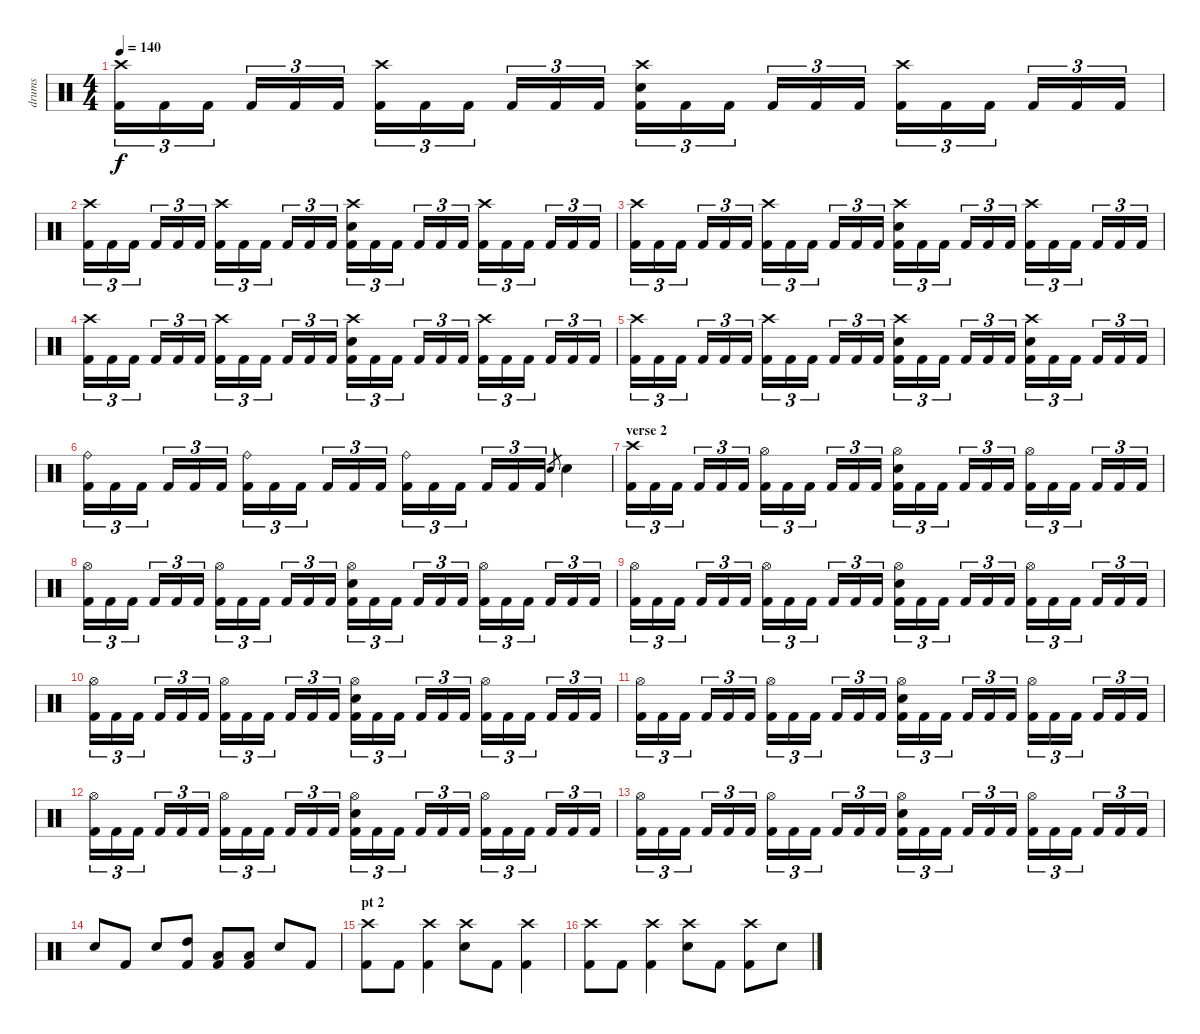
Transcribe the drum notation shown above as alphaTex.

\track ("drums" "drums") {instrument percussion}
\staff {score}
\articulation defaults
\ts (4 4)
\tempo 140
\clef neutral
\ks c
("Crash high (hit)" "Kick (hit) 2").16{tu (3 2) dy f} "Kick (hit) 2".16{tu (3 2)} "Kick (hit) 2".16{tu (3 2)} "Kick (hit) 2".16{tu (3 2)} "Kick (hit) 2".16{tu (3 2)} "Kick (hit) 2".16{tu (3 2)} ("Crash high (hit)" "Kick (hit) 2").16{tu (3 2)} "Kick (hit) 2".16{tu (3 2)} "Kick (hit) 2".16{tu (3 2)} "Kick (hit) 2".16{tu (3 2)} "Kick (hit) 2".16{tu (3 2)} "Kick (hit) 2".16{tu (3 2)} ("Crash high (hit)" "Electric Snare (hit)" "Kick (hit) 2").16{tu (3 2)} "Kick (hit) 2".16{tu (3 2)} "Kick (hit) 2".16{tu (3 2)} "Kick (hit) 2".16{tu (3 2)} "Kick (hit) 2".16{tu (3 2)} "Kick (hit) 2".16{tu (3 2)} ("Crash high (hit)" "Kick (hit) 2").16{tu (3 2)} "Kick (hit) 2".16{tu (3 2)} "Kick (hit) 2".16{tu (3 2)} "Kick (hit) 2".16{tu (3 2)} "Kick (hit) 2".16{tu (3 2)} "Kick (hit) 2".16{tu (3 2)} |
("Crash high (hit)" "Kick (hit) 2").16{tu (3 2)} "Kick (hit) 2".16{tu (3 2)} "Kick (hit) 2".16{tu (3 2)} "Kick (hit) 2".16{tu (3 2)} "Kick (hit) 2".16{tu (3 2)} "Kick (hit) 2".16{tu (3 2)} ("Crash high (hit)" "Kick (hit) 2").16{tu (3 2)} "Kick (hit) 2".16{tu (3 2)} "Kick (hit) 2".16{tu (3 2)} "Kick (hit) 2".16{tu (3 2)} "Kick (hit) 2".16{tu (3 2)} "Kick (hit) 2".16{tu (3 2)} ("Crash high (hit)" "Electric Snare (hit)" "Kick (hit) 2").16{tu (3 2)} "Kick (hit) 2".16{tu (3 2)} "Kick (hit) 2".16{tu (3 2)} "Kick (hit) 2".16{tu (3 2)} "Kick (hit) 2".16{tu (3 2)} "Kick (hit) 2".16{tu (3 2)} ("Crash high (hit)" "Kick (hit) 2").16{tu (3 2)} "Kick (hit) 2".16{tu (3 2)} "Kick (hit) 2".16{tu (3 2)} "Kick (hit) 2".16{tu (3 2)} "Kick (hit) 2".16{tu (3 2)} "Kick (hit) 2".16{tu (3 2)} |
("Crash high (hit)" "Kick (hit) 2").16{tu (3 2)} "Kick (hit) 2".16{tu (3 2)} "Kick (hit) 2".16{tu (3 2)} "Kick (hit) 2".16{tu (3 2)} "Kick (hit) 2".16{tu (3 2)} "Kick (hit) 2".16{tu (3 2)} ("Crash high (hit)" "Kick (hit) 2").16{tu (3 2)} "Kick (hit) 2".16{tu (3 2)} "Kick (hit) 2".16{tu (3 2)} "Kick (hit) 2".16{tu (3 2)} "Kick (hit) 2".16{tu (3 2)} "Kick (hit) 2".16{tu (3 2)} ("Crash high (hit)" "Electric Snare (hit)" "Kick (hit) 2").16{tu (3 2)} "Kick (hit) 2".16{tu (3 2)} "Kick (hit) 2".16{tu (3 2)} "Kick (hit) 2".16{tu (3 2)} "Kick (hit) 2".16{tu (3 2)} "Kick (hit) 2".16{tu (3 2)} ("Crash high (hit)" "Kick (hit) 2").16{tu (3 2)} "Kick (hit) 2".16{tu (3 2)} "Kick (hit) 2".16{tu (3 2)} "Kick (hit) 2".16{tu (3 2)} "Kick (hit) 2".16{tu (3 2)} "Kick (hit) 2".16{tu (3 2)} |
("Crash high (hit)" "Kick (hit) 2").16{tu (3 2)} "Kick (hit) 2".16{tu (3 2)} "Kick (hit) 2".16{tu (3 2)} "Kick (hit) 2".16{tu (3 2)} "Kick (hit) 2".16{tu (3 2)} "Kick (hit) 2".16{tu (3 2)} ("Crash high (hit)" "Kick (hit) 2").16{tu (3 2)} "Kick (hit) 2".16{tu (3 2)} "Kick (hit) 2".16{tu (3 2)} "Kick (hit) 2".16{tu (3 2)} "Kick (hit) 2".16{tu (3 2)} "Kick (hit) 2".16{tu (3 2)} ("Crash high (hit)" "Electric Snare (hit)" "Kick (hit) 2").16{tu (3 2)} "Kick (hit) 2".16{tu (3 2)} "Kick (hit) 2".16{tu (3 2)} "Kick (hit) 2".16{tu (3 2)} "Kick (hit) 2".16{tu (3 2)} "Kick (hit) 2".16{tu (3 2)} ("Crash high (hit)" "Kick (hit) 2").16{tu (3 2)} "Kick (hit) 2".16{tu (3 2)} "Kick (hit) 2".16{tu (3 2)} "Kick (hit) 2".16{tu (3 2)} "Kick (hit) 2".16{tu (3 2)} "Kick (hit) 2".16{tu (3 2)} |
("Crash high (hit)" "Kick (hit) 2").16{tu (3 2)} "Kick (hit) 2".16{tu (3 2)} "Kick (hit) 2".16{tu (3 2)} "Kick (hit) 2".16{tu (3 2)} "Kick (hit) 2".16{tu (3 2)} "Kick (hit) 2".16{tu (3 2)} ("Crash high (hit)" "Kick (hit) 2").16{tu (3 2)} "Kick (hit) 2".16{tu (3 2)} "Kick (hit) 2".16{tu (3 2)} "Kick (hit) 2".16{tu (3 2)} "Kick (hit) 2".16{tu (3 2)} "Kick (hit) 2".16{tu (3 2)} ("Crash high (hit)" "Electric Snare (hit)" "Kick (hit) 2").16{tu (3 2)} "Kick (hit) 2".16{tu (3 2)} "Kick (hit) 2".16{tu (3 2)} "Kick (hit) 2".16{tu (3 2)} "Kick (hit) 2".16{tu (3 2)} "Kick (hit) 2".16{tu (3 2)} ("Crash high (hit)" "Electric Snare (hit)" "Kick (hit) 2").16{tu (3 2)} "Kick (hit) 2".16{tu (3 2)} "Kick (hit) 2".16{tu (3 2)} "Kick (hit) 2".16{tu (3 2)} "Kick (hit) 2".16{tu (3 2)} "Kick (hit) 2".16{tu (3 2)} |
("Ride (bell)" "Kick (hit) 2").16{tu (3 2)} "Kick (hit) 2".16{tu (3 2)} "Kick (hit) 2".16{tu (3 2)} "Kick (hit) 2".16{tu (3 2)} "Kick (hit) 2".16{tu (3 2)} "Kick (hit) 2".16{tu (3 2)} ("Ride (bell)" "Kick (hit) 2").16{tu (3 2)} "Kick (hit) 2".16{tu (3 2)} "Kick (hit) 2".16{tu (3 2)} "Kick (hit) 2".16{tu (3 2)} "Kick (hit) 2".16{tu (3 2)} "Kick (hit) 2".16{tu (3 2)} ("Ride (bell)" "Kick (hit) 2").16{tu (3 2)} "Kick (hit) 2".16{tu (3 2)} "Kick (hit) 2".16{tu (3 2)} "Kick (hit) 2".16{tu (3 2)} "Kick (hit) 2".16{tu (3 2)} "Kick (hit) 2".16{tu (3 2)} "Electric Snare (hit)".8{gr} "Electric Snare (hit)".4 |
\section ("" "verse 2")
("Crash high (hit)" "Kick (hit) 2").16{tu (3 2)} "Kick (hit) 2".16{tu (3 2)} "Kick (hit) 2".16{tu (3 2)} "Kick (hit) 2".16{tu (3 2)} "Kick (hit) 2".16{tu (3 2)} "Kick (hit) 2".16{tu (3 2)} ("Hi-Hat (open)" "Kick (hit) 2").16{tu (3 2)} "Kick (hit) 2".16{tu (3 2)} "Kick (hit) 2".16{tu (3 2)} "Kick (hit) 2".16{tu (3 2)} "Kick (hit) 2".16{tu (3 2)} "Kick (hit) 2".16{tu (3 2)} ("Hi-Hat (open)" "Electric Snare (hit)" "Kick (hit) 2").16{tu (3 2)} "Kick (hit) 2".16{tu (3 2)} "Kick (hit) 2".16{tu (3 2)} "Kick (hit) 2".16{tu (3 2)} "Kick (hit) 2".16{tu (3 2)} "Kick (hit) 2".16{tu (3 2)} ("Hi-Hat (open)" "Kick (hit) 2").16{tu (3 2)} "Kick (hit) 2".16{tu (3 2)} "Kick (hit) 2".16{tu (3 2)} "Kick (hit) 2".16{tu (3 2)} "Kick (hit) 2".16{tu (3 2)} "Kick (hit) 2".16{tu (3 2)} |
("Hi-Hat (open)" "Kick (hit) 2").16{tu (3 2)} "Kick (hit) 2".16{tu (3 2)} "Kick (hit) 2".16{tu (3 2)} "Kick (hit) 2".16{tu (3 2)} "Kick (hit) 2".16{tu (3 2)} "Kick (hit) 2".16{tu (3 2)} ("Hi-Hat (open)" "Kick (hit) 2").16{tu (3 2)} "Kick (hit) 2".16{tu (3 2)} "Kick (hit) 2".16{tu (3 2)} "Kick (hit) 2".16{tu (3 2)} "Kick (hit) 2".16{tu (3 2)} "Kick (hit) 2".16{tu (3 2)} ("Hi-Hat (open)" "Electric Snare (hit)" "Kick (hit) 2").16{tu (3 2)} "Kick (hit) 2".16{tu (3 2)} "Kick (hit) 2".16{tu (3 2)} "Kick (hit) 2".16{tu (3 2)} "Kick (hit) 2".16{tu (3 2)} "Kick (hit) 2".16{tu (3 2)} ("Hi-Hat (open)" "Kick (hit) 2").16{tu (3 2)} "Kick (hit) 2".16{tu (3 2)} "Kick (hit) 2".16{tu (3 2)} "Kick (hit) 2".16{tu (3 2)} "Kick (hit) 2".16{tu (3 2)} "Kick (hit) 2".16{tu (3 2)} |
("Hi-Hat (open)" "Kick (hit) 2").16{tu (3 2)} "Kick (hit) 2".16{tu (3 2)} "Kick (hit) 2".16{tu (3 2)} "Kick (hit) 2".16{tu (3 2)} "Kick (hit) 2".16{tu (3 2)} "Kick (hit) 2".16{tu (3 2)} ("Hi-Hat (open)" "Kick (hit) 2").16{tu (3 2)} "Kick (hit) 2".16{tu (3 2)} "Kick (hit) 2".16{tu (3 2)} "Kick (hit) 2".16{tu (3 2)} "Kick (hit) 2".16{tu (3 2)} "Kick (hit) 2".16{tu (3 2)} ("Hi-Hat (open)" "Electric Snare (hit)" "Kick (hit) 2").16{tu (3 2)} "Kick (hit) 2".16{tu (3 2)} "Kick (hit) 2".16{tu (3 2)} "Kick (hit) 2".16{tu (3 2)} "Kick (hit) 2".16{tu (3 2)} "Kick (hit) 2".16{tu (3 2)} ("Hi-Hat (open)" "Kick (hit) 2").16{tu (3 2)} "Kick (hit) 2".16{tu (3 2)} "Kick (hit) 2".16{tu (3 2)} "Kick (hit) 2".16{tu (3 2)} "Kick (hit) 2".16{tu (3 2)} "Kick (hit) 2".16{tu (3 2)} |
("Hi-Hat (open)" "Kick (hit) 2").16{tu (3 2)} "Kick (hit) 2".16{tu (3 2)} "Kick (hit) 2".16{tu (3 2)} "Kick (hit) 2".16{tu (3 2)} "Kick (hit) 2".16{tu (3 2)} "Kick (hit) 2".16{tu (3 2)} ("Hi-Hat (open)" "Kick (hit) 2").16{tu (3 2)} "Kick (hit) 2".16{tu (3 2)} "Kick (hit) 2".16{tu (3 2)} "Kick (hit) 2".16{tu (3 2)} "Kick (hit) 2".16{tu (3 2)} "Kick (hit) 2".16{tu (3 2)} ("Hi-Hat (open)" "Electric Snare (hit)" "Kick (hit) 2").16{tu (3 2)} "Kick (hit) 2".16{tu (3 2)} "Kick (hit) 2".16{tu (3 2)} "Kick (hit) 2".16{tu (3 2)} "Kick (hit) 2".16{tu (3 2)} "Kick (hit) 2".16{tu (3 2)} ("Hi-Hat (open)" "Kick (hit) 2").16{tu (3 2)} "Kick (hit) 2".16{tu (3 2)} "Kick (hit) 2".16{tu (3 2)} "Kick (hit) 2".16{tu (3 2)} "Kick (hit) 2".16{tu (3 2)} "Kick (hit) 2".16{tu (3 2)} |
("Hi-Hat (open)" "Kick (hit) 2").16{tu (3 2)} "Kick (hit) 2".16{tu (3 2)} "Kick (hit) 2".16{tu (3 2)} "Kick (hit) 2".16{tu (3 2)} "Kick (hit) 2".16{tu (3 2)} "Kick (hit) 2".16{tu (3 2)} ("Hi-Hat (open)" "Kick (hit) 2").16{tu (3 2)} "Kick (hit) 2".16{tu (3 2)} "Kick (hit) 2".16{tu (3 2)} "Kick (hit) 2".16{tu (3 2)} "Kick (hit) 2".16{tu (3 2)} "Kick (hit) 2".16{tu (3 2)} ("Hi-Hat (open)" "Electric Snare (hit)" "Kick (hit) 2").16{tu (3 2)} "Kick (hit) 2".16{tu (3 2)} "Kick (hit) 2".16{tu (3 2)} "Kick (hit) 2".16{tu (3 2)} "Kick (hit) 2".16{tu (3 2)} "Kick (hit) 2".16{tu (3 2)} ("Hi-Hat (open)" "Kick (hit) 2").16{tu (3 2)} "Kick (hit) 2".16{tu (3 2)} "Kick (hit) 2".16{tu (3 2)} "Kick (hit) 2".16{tu (3 2)} "Kick (hit) 2".16{tu (3 2)} "Kick (hit) 2".16{tu (3 2)} |
("Hi-Hat (open)" "Kick (hit) 2").16{tu (3 2)} "Kick (hit) 2".16{tu (3 2)} "Kick (hit) 2".16{tu (3 2)} "Kick (hit) 2".16{tu (3 2)} "Kick (hit) 2".16{tu (3 2)} "Kick (hit) 2".16{tu (3 2)} ("Hi-Hat (open)" "Kick (hit) 2").16{tu (3 2)} "Kick (hit) 2".16{tu (3 2)} "Kick (hit) 2".16{tu (3 2)} "Kick (hit) 2".16{tu (3 2)} "Kick (hit) 2".16{tu (3 2)} "Kick (hit) 2".16{tu (3 2)} ("Hi-Hat (open)" "Electric Snare (hit)" "Kick (hit) 2").16{tu (3 2)} "Kick (hit) 2".16{tu (3 2)} "Kick (hit) 2".16{tu (3 2)} "Kick (hit) 2".16{tu (3 2)} "Kick (hit) 2".16{tu (3 2)} "Kick (hit) 2".16{tu (3 2)} ("Hi-Hat (open)" "Kick (hit) 2").16{tu (3 2)} "Kick (hit) 2".16{tu (3 2)} "Kick (hit) 2".16{tu (3 2)} "Kick (hit) 2".16{tu (3 2)} "Kick (hit) 2".16{tu (3 2)} "Kick (hit) 2".16{tu (3 2)} |
("Hi-Hat (open)" "Kick (hit) 2").16{tu (3 2)} "Kick (hit) 2".16{tu (3 2)} "Kick (hit) 2".16{tu (3 2)} "Kick (hit) 2".16{tu (3 2)} "Kick (hit) 2".16{tu (3 2)} "Kick (hit) 2".16{tu (3 2)} ("Hi-Hat (open)" "Kick (hit) 2").16{tu (3 2)} "Kick (hit) 2".16{tu (3 2)} "Kick (hit) 2".16{tu (3 2)} "Kick (hit) 2".16{tu (3 2)} "Kick (hit) 2".16{tu (3 2)} "Kick (hit) 2".16{tu (3 2)} ("Hi-Hat (open)" "Electric Snare (hit)" "Kick (hit) 2").16{tu (3 2)} "Kick (hit) 2".16{tu (3 2)} "Kick (hit) 2".16{tu (3 2)} "Kick (hit) 2".16{tu (3 2)} "Kick (hit) 2".16{tu (3 2)} "Kick (hit) 2".16{tu (3 2)} ("Hi-Hat (open)" "Kick (hit) 2").16{tu (3 2)} "Kick (hit) 2".16{tu (3 2)} "Kick (hit) 2".16{tu (3 2)} "Kick (hit) 2".16{tu (3 2)} "Kick (hit) 2".16{tu (3 2)} "Kick (hit) 2".16{tu (3 2)} |
"Electric Snare (hit)".8 "Kick (hit) 2".8 "Electric Snare (hit)".8 ("High Tom (hit)" "Kick (hit) 2").8 ("Low Tom (hit)" "Kick (hit) 2").8 ("Low Tom (hit)" "Kick (hit) 2").8 "Electric Snare (hit)".8 "Kick (hit) 2".8 |
\section ("" "pt 2")
("Crash high (hit)" "Kick (hit) 2").8 "Kick (hit) 2".8 ("Crash high (hit)" "Kick (hit) 2").4 ("Crash high (hit)" "Electric Snare (hit)").8 "Kick (hit) 2".8 ("Crash high (hit)" "Kick (hit) 2").4 |
("Crash high (hit)" "Kick (hit) 2").8 "Kick (hit) 2".8 ("Crash high (hit)" "Kick (hit) 2").4 ("Crash high (hit)" "Electric Snare (hit)").8 "Kick (hit) 2".8 ("Crash high (hit)" "Kick (hit) 2").8 "Electric Snare (hit)".8
